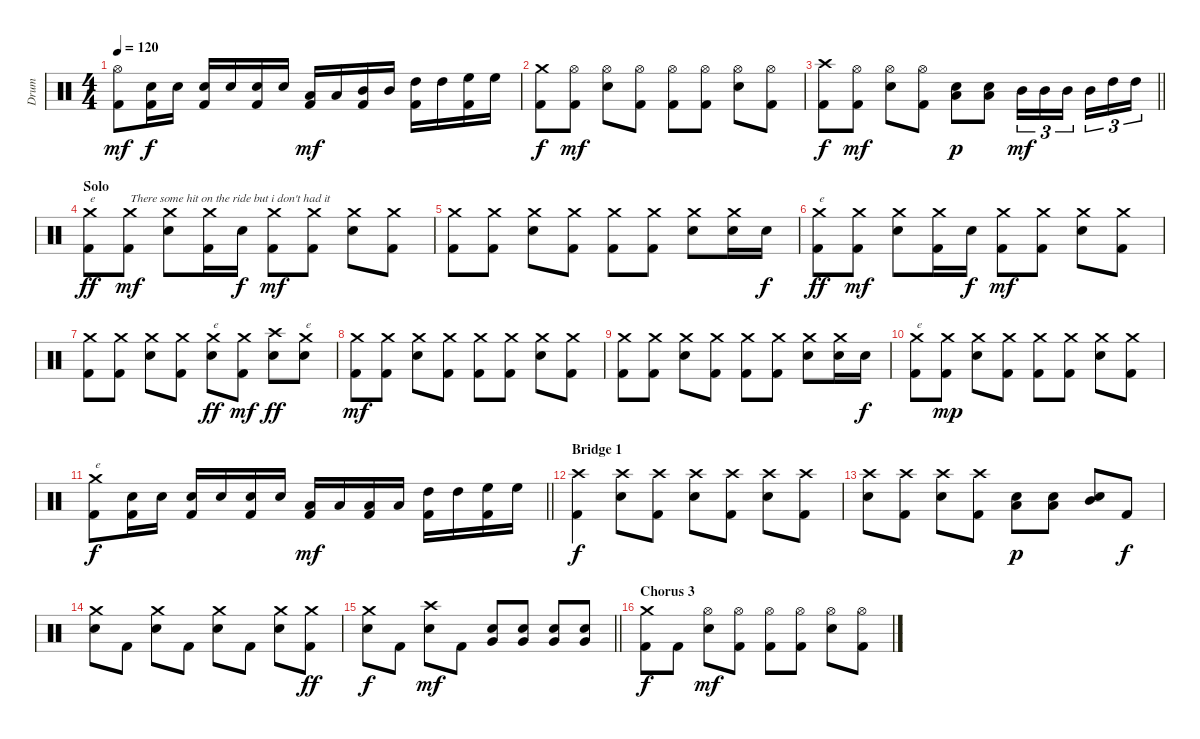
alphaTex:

\track ("Drum" "Drum") {instrument percussion}
\staff {score}
\articulation defaults
\ts (4 4)
\tempo 120
\clef neutral
\ks c
("Hi-Hat (open)" "Kick (hit) 2").8{dy mf} ("Snare (hit) 2" "Kick (hit) 2").16{dy f} "Snare (hit) 2".16 ("Snare (hit) 2" "Kick (hit) 2").16 "Snare (hit) 2".16 ("Snare (hit) 2" "Kick (hit) 2").16 "Snare (hit) 2".16 ("Low Tom (hit)" "Kick (hit) 2").16{dy mf} "Low Tom (hit)".16 ("Mid Tom (hit)" "Kick (hit) 2").16 "Mid Tom (hit)".16 ("High Tom (hit)" "Kick (hit) 2").16 "High Tom (hit)".16 ("High Floor Tom (hit)" "Kick (hit) 2").16 "High Floor Tom (hit)".16 |
("Crash medium (hit)" "Kick (hit) 2").8{dy f} ("Hi-Hat (open)" "Kick (hit) 2").8{dy mf} ("Hi-Hat (open)" "Snare (hit) 2").8 ("Hi-Hat (open)" "Kick (hit) 2").8 ("Hi-Hat (open)" "Kick (hit) 2").8 ("Hi-Hat (open)" "Kick (hit) 2").8 ("Hi-Hat (open)" "Snare (hit) 2").8 ("Hi-Hat (open)" "Kick (hit) 2").8 |
\barLineRight lightlight
("Crash high (hit)" "Kick (hit) 2").8{dy f} ("Hi-Hat (open)" "Kick (hit) 2").8{dy mf} ("Hi-Hat (open)" "Snare (hit) 2").8 ("Hi-Hat (open)" "Kick (hit) 2").8 ("Low Floor Tom (hit)" "Snare (hit) 2").8{dy p} ("Low Floor Tom (hit)" "Snare (hit) 2").8 "Mid Tom (hit)".16{tu (3 2) dy mf} "Mid Tom (hit)".16{tu (3 2)} "Mid Tom (hit)".16{tu (3 2) beam splitsecondary} "Mid Tom (hit)".16{tu (3 2)} "High Tom (hit)".16{tu (3 2)} "High Tom (hit)".16{tu (3 2)} |
\section ("" "Solo")
("Crash medium (hit)" "Kick (hit) 2").8{txt "e" dy ff} ("Crash medium (hit)" "Kick (hit) 2").8{txt "There some hit on the ride but i don't had it" dy mf} ("Crash medium (hit)" "Snare (hit) 2").8 ("Crash medium (hit)" "Kick (hit) 2").16 "Snare (hit) 2".16{dy f} ("Crash medium (hit)" "Kick (hit) 2").8{dy mf} ("Crash medium (hit)" "Kick (hit) 2").8 ("Crash medium (hit)" "Snare (hit) 2").8 ("Crash medium (hit)" "Kick (hit) 2").8 |
("Crash medium (hit)" "Kick (hit) 2").8 ("Crash medium (hit)" "Kick (hit) 2").8 ("Crash medium (hit)" "Snare (hit) 2").8 ("Crash medium (hit)" "Kick (hit) 2").8 ("Crash medium (hit)" "Kick (hit) 2").8 ("Crash medium (hit)" "Kick (hit) 2").8 ("Crash medium (hit)" "Snare (hit) 2").8 ("Crash medium (hit)" "Snare (hit) 2").16 "Snare (hit) 2".16{dy f} |
("Crash medium (hit)" "Kick (hit) 2").8{txt "e" dy ff} ("Crash medium (hit)" "Kick (hit) 2").8{dy mf} ("Crash medium (hit)" "Snare (hit) 2").8 ("Crash medium (hit)" "Kick (hit) 2").16 "Snare (hit) 2".16{dy f} ("Crash medium (hit)" "Kick (hit) 2").8{dy mf} ("Crash medium (hit)" "Kick (hit) 2").8 ("Crash medium (hit)" "Snare (hit) 2").8 ("Crash medium (hit)" "Kick (hit) 2").8 |
("Crash medium (hit)" "Kick (hit) 2").8 ("Crash medium (hit)" "Kick (hit) 2").8 ("Crash medium (hit)" "Snare (hit) 2").8 ("Crash medium (hit)" "Kick (hit) 2").8 ("Crash medium (hit)" "Snare (hit) 2").8{txt "e" dy ff} ("Crash medium (hit)" "Kick (hit) 2").8{dy mf} ("Crash high (hit)" "Snare (hit) 2").8{dy ff} ("Crash medium (hit)" "Snare (hit) 2").8{txt "e"} |
("Crash medium (hit)" "Kick (hit) 2").8{dy mf} ("Crash medium (hit)" "Kick (hit) 2").8 ("Crash medium (hit)" "Snare (hit) 2").8 ("Crash medium (hit)" "Kick (hit) 2").8 ("Crash medium (hit)" "Kick (hit) 2").8 ("Crash medium (hit)" "Kick (hit) 2").8 ("Crash medium (hit)" "Snare (hit) 2").8 ("Crash medium (hit)" "Kick (hit) 2").8 |
("Crash medium (hit)" "Kick (hit) 2").8 ("Crash medium (hit)" "Kick (hit) 2").8 ("Crash medium (hit)" "Snare (hit) 2").8 ("Crash medium (hit)" "Kick (hit) 2").8 ("Crash medium (hit)" "Kick (hit) 2").8 ("Crash medium (hit)" "Kick (hit) 2").8 ("Crash medium (hit)" "Snare (hit) 2").8 ("Crash medium (hit)" "Snare (hit) 2").16 "Snare (hit) 2".16{dy f} |
("Crash medium (hit)" "Kick (hit) 2").8{txt "e"} ("Crash medium (hit)" "Kick (hit) 2").8{dy mp} ("Crash medium (hit)" "Snare (hit) 2").8 ("Crash medium (hit)" "Kick (hit) 2").8 ("Crash medium (hit)" "Kick (hit) 2").8 ("Crash medium (hit)" "Kick (hit) 2").8 ("Crash medium (hit)" "Snare (hit) 2").8 ("Crash medium (hit)" "Kick (hit) 2").8 |
\barLineRight lightlight
("Crash medium (hit)" "Kick (hit) 2").8{txt "e" dy f} ("Snare (hit) 2" "Kick (hit) 2").16 "Snare (hit) 2".16 ("Snare (hit) 2" "Kick (hit) 2").16 "Snare (hit) 2".16 ("Snare (hit) 2" "Kick (hit) 2").16 "Snare (hit) 2".16 ("Low Tom (hit)" "Kick (hit) 2").16{dy mf} "Low Tom (hit)".16 ("Low Tom (hit)" "Kick (hit) 2").16 "Low Tom (hit)".16 ("High Tom (hit)" "Kick (hit) 2").16 "High Tom (hit)".16 ("High Floor Tom (hit)" "Kick (hit) 2").16 "High Floor Tom (hit)".16 |
\section ("" "Bridge 1")
("Crash high (hit)" "Kick (hit) 2").4{dy f} ("Crash high (hit)" "Snare (hit) 2").8 ("Crash high (hit)" "Kick (hit) 2").8 ("Crash high (hit)" "Snare (hit) 2").8 ("Crash high (hit)" "Kick (hit) 2").8 ("Crash high (hit)" "Snare (hit) 2").8 ("Crash high (hit)" "Kick (hit) 2").8 |
("Crash high (hit)" "Snare (hit) 2").8 ("Crash high (hit)" "Kick (hit) 2").8 ("Crash high (hit)" "Snare (hit) 2").8 ("Crash high (hit)" "Kick (hit) 2").8 ("Low Tom (hit)" "Snare (hit) 2").8{dy p} ("Low Tom (hit)" "Snare (hit) 2").8 ("Mid Tom (hit)" "Snare (hit) 2").8 "Kick (hit) 2".8{dy f} |
("Crash medium (hit)" "Snare (hit) 2").8 "Kick (hit) 2".8 ("Crash medium (hit)" "Snare (hit) 2").8 "Kick (hit) 2".8 ("Crash medium (hit)" "Snare (hit) 2").8 "Kick (hit) 2".8 ("Crash medium (hit)" "Snare (hit) 2").8 ("Crash medium (hit)" "Kick (hit) 2").8{dy ff} |
\barLineRight lightlight
("Crash medium (hit)" "Snare (hit) 2").8{dy f} "Kick (hit) 2".8 ("Crash high (hit)" "Snare (hit) 2").8{dy mf} "Kick (hit) 2".8 ("Very Low Tom (hit)" "Snare (hit) 2").8 ("Very Low Tom (hit)" "Snare (hit) 2").8 ("Very Low Tom (hit)" "Snare (hit) 2").8 ("Very Low Tom (hit)" "Snare (hit) 2").8 |
\section ("" "Chorus 3")
("Crash medium (hit)" "Kick (hit) 2").8{dy f} "Kick (hit) 2".8 ("Hi-Hat (open)" "Snare (hit) 2").8{dy mf} ("Hi-Hat (open)" "Kick (hit) 2").8 ("Hi-Hat (open)" "Kick (hit) 2").8 ("Hi-Hat (open)" "Kick (hit) 2").8 ("Hi-Hat (open)" "Snare (hit) 2").8 ("Hi-Hat (open)" "Kick (hit) 2").8
